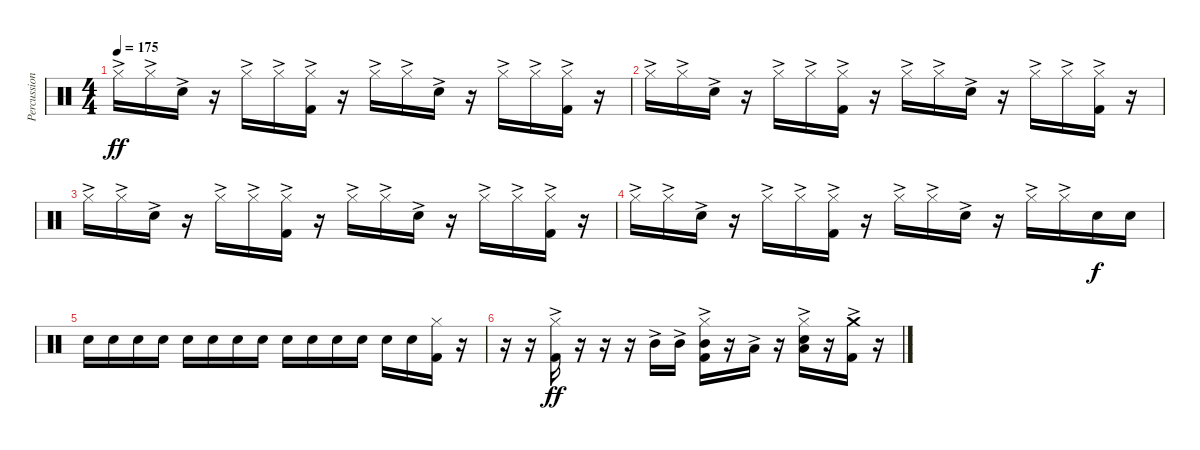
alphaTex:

\track ("Percussion" "Percussion") {instrument percussion}
\staff {score}
\articulation defaults
\ts (4 4)
\tempo 175
\clef neutral
\ks c "Hi-Hat (closed)"{ac}.16{dy ff} "Hi-Hat (closed)"{ac}.16 "Snare (hit) 2"{ac}.16
r.16 "Hi-Hat (closed)"{ac}.16 "Hi-Hat (closed)"{ac}.16 ("Hi-Hat (closed)"{ac} "Kick (hit) 2"{ac}).16 r.16 "Hi-Hat (closed)"{ac}.16 "Hi-Hat (closed)"{ac}.16 "Snare (hit) 2"{ac}.16 r.16 "Hi-Hat (closed)"{ac}.16 "Hi-Hat (closed)"{ac}.16 ("Hi-Hat (closed)"{ac} "Kick (hit) 2"{ac}).16 r.16 |
"Hi-Hat (closed)"{ac}.16 "Hi-Hat (closed)"{ac}.16 "Snare (hit) 2"{ac}.16 r.16 "Hi-Hat (closed)"{ac}.16 "Hi-Hat (closed)"{ac}.16 ("Hi-Hat (closed)"{ac} "Kick (hit) 2"{ac}).16 r.16 "Hi-Hat (closed)"{ac}.16 "Hi-Hat (closed)"{ac}.16 "Snare (hit) 2"{ac}.16 r.16 "Hi-Hat (closed)"{ac}.16 "Hi-Hat (closed)"{ac}.16 ("Hi-Hat (closed)"{ac} "Kick (hit) 2"{ac}).16 r.16 |
"Hi-Hat (closed)"{ac}.16 "Hi-Hat (closed)"{ac}.16 "Snare (hit) 2"{ac}.16 r.16 "Hi-Hat (closed)"{ac}.16 "Hi-Hat (closed)"{ac}.16 ("Hi-Hat (closed)"{ac} "Kick (hit) 2"{ac}).16 r.16 "Hi-Hat (closed)"{ac}.16 "Hi-Hat (closed)"{ac}.16 "Snare (hit) 2"{ac}.16 r.16 "Hi-Hat (closed)"{ac}.16 "Hi-Hat (closed)"{ac}.16 ("Hi-Hat (closed)"{ac} "Kick (hit) 2"{ac}).16 r.16 |
"Hi-Hat (closed)"{ac}.16 "Hi-Hat (closed)"{ac}.16 "Snare (hit) 2"{ac}.16 r.16 "Hi-Hat (closed)"{ac}.16 "Hi-Hat (closed)"{ac}.16 ("Hi-Hat (closed)"{ac} "Kick (hit) 2"{ac}).16 r.16 "Hi-Hat (closed)"{ac}.16 "Hi-Hat (closed)"{ac}.16 "Snare (hit) 2"{ac}.16 r.16 "Hi-Hat (closed)"{ac}.16 "Hi-Hat (closed)"{ac}.16 "Snare (hit) 2".16{dy f} "Snare (hit) 2".16 |
"Snare (hit) 2".16 "Snare (hit) 2".16 "Snare (hit) 2".16 "Snare (hit) 2".16 "Snare (hit) 2".16 "Snare (hit) 2".16 "Snare (hit) 2".16 "Snare (hit) 2".16 "Snare (hit) 2".16 "Snare (hit) 2".16 "Snare (hit) 2".16 "Snare (hit) 2".16 "Snare (hit) 2".16 "Snare (hit) 2".16 ("Hi-Hat (closed)" "Kick (hit) 2").16 r.16 |
r.16 r.16 ("Hi-Hat (closed)"{ac} "Kick (hit) 2"{ac}).16{dy ff} r.16 r.16 r.16 "Mid Tom (hit)"{ac}.16 "Mid Tom (hit)"{ac}.16 ("Hi-Hat (closed)"{ac} "Mid Tom (hit)"{ac} "Kick (hit) 2"{ac}).16 r.16 "Low Tom (hit)"{ac}.16 r.16 ("Hi-Hat (closed)"{ac} "Low Tom (hit)"{ac} "Snare (hit)"{ac}).16 r.16 ("Crash medium (hit)"{ac} "Kick (hit) 2"{ac}).16 r.16
